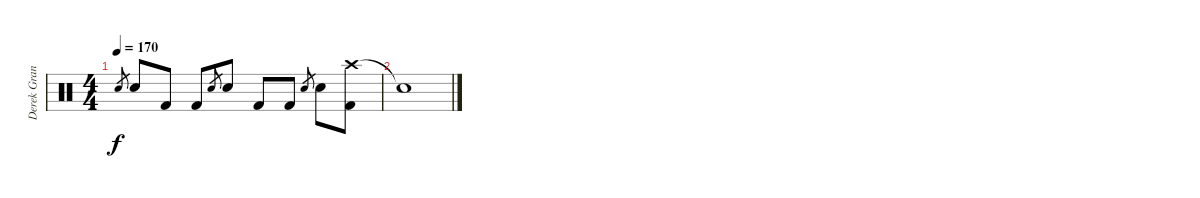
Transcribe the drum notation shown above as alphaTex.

\track ("Derek Grant" "Derek Gran") {instrument percussion}
\staff {score}
\articulation defaults
\ts (4 4)
\tempo 170
\clef neutral
\ks c "Snare (hit) 2".8{gr dy f} "Snare (hit) 2".8 "Kick (hit) 2".8 "Kick (hit) 2".8 "Snare (hit) 2".8{gr} "Snare (hit) 2".8 "Kick (hit) 2".8 "Kick (hit) 2".8 "Snare (hit) 2".8{gr} "Snare (hit) 2".8
("Crash high (hit)" "Kick (hit) 2").8 |
"Snare (hit)"{t}.1
